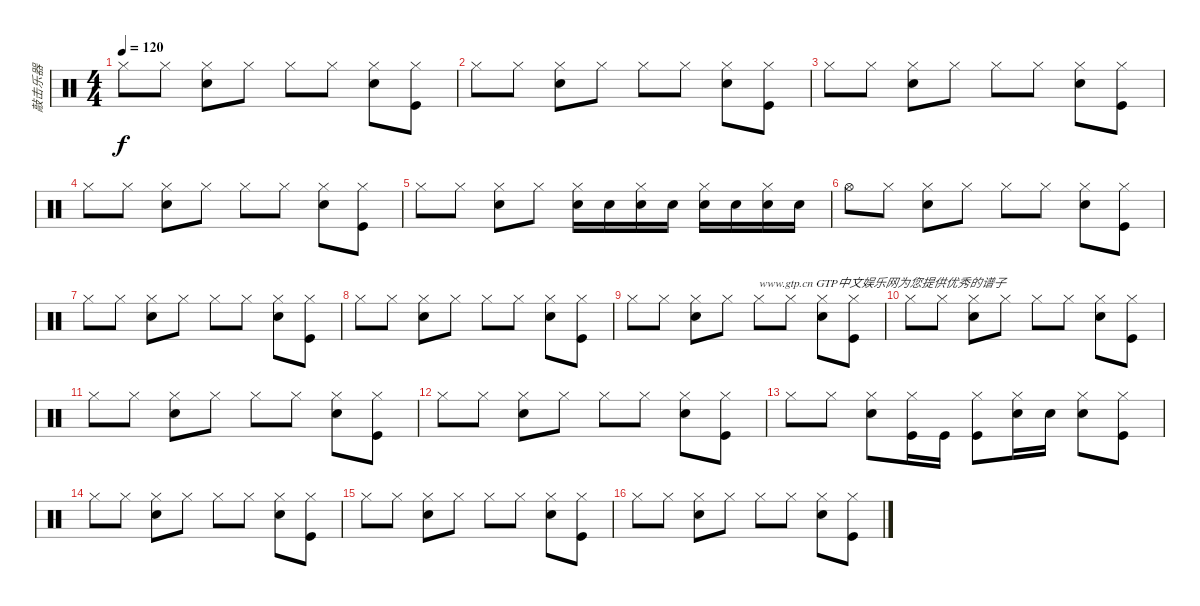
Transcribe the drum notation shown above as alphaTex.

\track ("敲击乐器" "敲击乐器") {instrument percussion}
\staff {score}
\articulation defaults
\ts (4 4)
\tempo 120
\clef neutral
\ks c "Hi-Hat (closed)".8{dy f} "Hi-Hat (closed)".8
("Hi-Hat (closed)" "Snare (hit) 2").8 "Hi-Hat (closed)".8 "Hi-Hat (closed)".8 "Hi-Hat (closed)".8 ("Hi-Hat (closed)" "Snare (hit) 2").8 ("Hi-Hat (closed)" "Kick (hit)").8 |
"Hi-Hat (closed)".8 "Hi-Hat (closed)".8 ("Hi-Hat (closed)" "Snare (hit) 2").8 "Hi-Hat (closed)".8 "Hi-Hat (closed)".8 "Hi-Hat (closed)".8 ("Hi-Hat (closed)" "Snare (hit) 2").8 ("Hi-Hat (closed)" "Kick (hit)").8 |
"Hi-Hat (closed)".8 "Hi-Hat (closed)".8 ("Hi-Hat (closed)" "Snare (hit) 2").8 "Hi-Hat (closed)".8 "Hi-Hat (closed)".8 "Hi-Hat (closed)".8 ("Hi-Hat (closed)" "Snare (hit) 2").8 ("Hi-Hat (closed)" "Kick (hit)").8 |
"Hi-Hat (closed)".8 "Hi-Hat (closed)".8 ("Hi-Hat (closed)" "Snare (hit) 2").8 "Hi-Hat (closed)".8 "Hi-Hat (closed)".8 "Hi-Hat (closed)".8 ("Hi-Hat (closed)" "Snare (hit) 2").8 ("Hi-Hat (closed)" "Kick (hit)").8 |
"Hi-Hat (closed)".8 "Hi-Hat (closed)".8 ("Hi-Hat (closed)" "Snare (hit) 2").8 "Hi-Hat (closed)".8 ("Hi-Hat (closed)" "Snare (hit) 2").16 "Snare (hit) 2".16 ("Hi-Hat (closed)" "Snare (hit) 2").16 "Snare (hit) 2".16 ("Hi-Hat (closed)" "Snare (hit) 2").16 "Snare (hit) 2".16 ("Hi-Hat (closed)" "Snare (hit) 2").16 "Snare (hit) 2".16 |
"Hi-Hat (open)".8 "Hi-Hat (closed)".8 ("Hi-Hat (closed)" "Snare (hit) 2").8 "Hi-Hat (closed)".8 "Hi-Hat (closed)".8 "Hi-Hat (closed)".8 ("Hi-Hat (closed)" "Snare (hit) 2").8 ("Hi-Hat (closed)" "Kick (hit)").8 |
"Hi-Hat (closed)".8 "Hi-Hat (closed)".8 ("Hi-Hat (closed)" "Snare (hit) 2").8 "Hi-Hat (closed)".8 "Hi-Hat (closed)".8 "Hi-Hat (closed)".8 ("Hi-Hat (closed)" "Snare (hit) 2").8 ("Hi-Hat (closed)" "Kick (hit)").8 |
"Hi-Hat (closed)".8 "Hi-Hat (closed)".8 ("Hi-Hat (closed)" "Snare (hit) 2").8 "Hi-Hat (closed)".8 "Hi-Hat (closed)".8 "Hi-Hat (closed)".8 ("Hi-Hat (closed)" "Snare (hit) 2").8 ("Hi-Hat (closed)" "Kick (hit)").8 |
"Hi-Hat (closed)".8 "Hi-Hat (closed)".8 ("Hi-Hat (closed)" "Snare (hit) 2").8 "Hi-Hat (closed)".8 "Hi-Hat (closed)".8{txt "www.gtp.cn GTP中文娱乐网为您提供优秀的谱子"} "Hi-Hat (closed)".8 ("Hi-Hat (closed)" "Snare (hit) 2").8 ("Hi-Hat (closed)" "Kick (hit)").8 |
"Hi-Hat (closed)".8 "Hi-Hat (closed)".8 ("Hi-Hat (closed)" "Snare (hit) 2").8 "Hi-Hat (closed)".8 "Hi-Hat (closed)".8 "Hi-Hat (closed)".8 ("Hi-Hat (closed)" "Snare (hit) 2").8 ("Hi-Hat (closed)" "Kick (hit)").8 |
"Hi-Hat (closed)".8 "Hi-Hat (closed)".8 ("Hi-Hat (closed)" "Snare (hit) 2").8 "Hi-Hat (closed)".8 "Hi-Hat (closed)".8 "Hi-Hat (closed)".8 ("Hi-Hat (closed)" "Snare (hit) 2").8 ("Hi-Hat (closed)" "Kick (hit)").8 |
"Hi-Hat (closed)".8 "Hi-Hat (closed)".8 ("Hi-Hat (closed)" "Snare (hit) 2").8 "Hi-Hat (closed)".8 "Hi-Hat (closed)".8 "Hi-Hat (closed)".8 ("Hi-Hat (closed)" "Snare (hit) 2").8 ("Hi-Hat (closed)" "Kick (hit)").8 |
"Hi-Hat (closed)".8 "Hi-Hat (closed)".8 ("Hi-Hat (closed)" "Snare (hit) 2").8 ("Hi-Hat (closed)" "Kick (hit)").16 "Kick (hit)".16 ("Hi-Hat (closed)" "Kick (hit)").8 ("Hi-Hat (closed)" "Snare (hit) 2").16 "Snare (hit) 2".16 ("Hi-Hat (closed)" "Snare (hit) 2").8 ("Hi-Hat (closed)" "Kick (hit)").8 |
"Hi-Hat (closed)".8 "Hi-Hat (closed)".8 ("Hi-Hat (closed)" "Snare (hit) 2").8 "Hi-Hat (closed)".8 "Hi-Hat (closed)".8 "Hi-Hat (closed)".8 ("Hi-Hat (closed)" "Snare (hit) 2").8 ("Hi-Hat (closed)" "Kick (hit)").8 |
"Hi-Hat (closed)".8 "Hi-Hat (closed)".8 ("Hi-Hat (closed)" "Snare (hit) 2").8 "Hi-Hat (closed)".8 "Hi-Hat (closed)".8 "Hi-Hat (closed)".8 ("Hi-Hat (closed)" "Snare (hit) 2").8 ("Hi-Hat (closed)" "Kick (hit)").8 |
"Hi-Hat (closed)".8 "Hi-Hat (closed)".8 ("Hi-Hat (closed)" "Snare (hit) 2").8 "Hi-Hat (closed)".8 "Hi-Hat (closed)".8 "Hi-Hat (closed)".8 ("Hi-Hat (closed)" "Snare (hit) 2").8 ("Hi-Hat (closed)" "Kick (hit)").8
